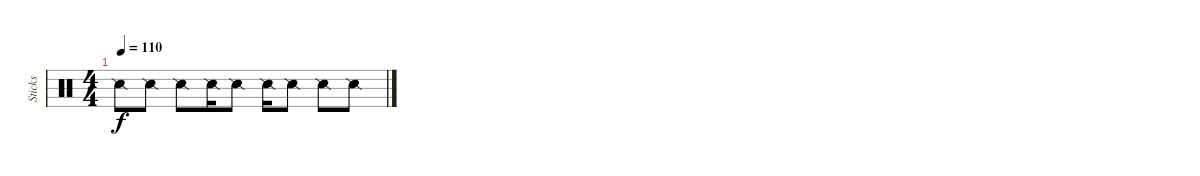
\track ("Sticks" "Sticks") {instrument percussion}
\staff {score}
\articulation defaults
\ts (4 4)
\tempo 110
\clef neutral
\ks c "Snare (side stick) 2".8{dy f} "Snare (side stick) 2".8 "Snare (side stick) 2".8 "Snare (side stick) 2".16 "Snare (side stick) 2".8 "Snare (side stick) 2".16 "Snare (side stick) 2".8 "Snare (side stick) 2".8 "Snare (side stick) 2".8
